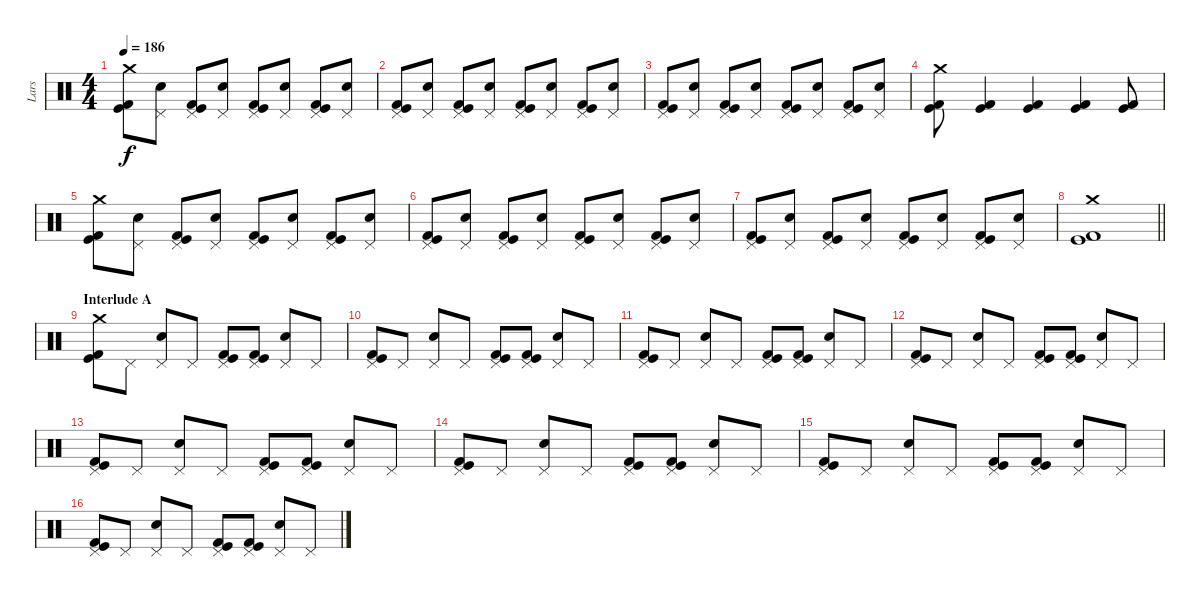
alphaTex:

\track ("Lars" "Lars") {instrument percussion}
\staff {score}
\articulation defaults
\ts (4 4)
\tempo 186
\clef neutral
\ks c
("Crash medium (hit)" "Kick (hit)" "Kick (hit) 2").8{dy f} ("Pedal Hi-Hat (hit)" "Electric Snare (hit)").8 ("Pedal Hi-Hat (hit)" "Kick (hit)" "Kick (hit) 2").8 ("Pedal Hi-Hat (hit)" "Electric Snare (hit)").8 ("Pedal Hi-Hat (hit)" "Kick (hit)" "Kick (hit) 2").8 ("Pedal Hi-Hat (hit)" "Electric Snare (hit)").8 ("Pedal Hi-Hat (hit)" "Kick (hit)" "Kick (hit) 2").8 ("Pedal Hi-Hat (hit)" "Electric Snare (hit)").8 |
("Pedal Hi-Hat (hit)" "Kick (hit)" "Kick (hit) 2").8 ("Pedal Hi-Hat (hit)" "Electric Snare (hit)").8 ("Pedal Hi-Hat (hit)" "Kick (hit)" "Kick (hit) 2").8 ("Pedal Hi-Hat (hit)" "Electric Snare (hit)").8 ("Pedal Hi-Hat (hit)" "Kick (hit)" "Kick (hit) 2").8 ("Pedal Hi-Hat (hit)" "Electric Snare (hit)").8 ("Pedal Hi-Hat (hit)" "Kick (hit)" "Kick (hit) 2").8 ("Pedal Hi-Hat (hit)" "Electric Snare (hit)").8 |
("Pedal Hi-Hat (hit)" "Kick (hit)" "Kick (hit) 2").8 ("Pedal Hi-Hat (hit)" "Electric Snare (hit)").8 ("Pedal Hi-Hat (hit)" "Kick (hit)" "Kick (hit) 2").8 ("Pedal Hi-Hat (hit)" "Electric Snare (hit)").8 ("Pedal Hi-Hat (hit)" "Kick (hit)" "Kick (hit) 2").8 ("Pedal Hi-Hat (hit)" "Electric Snare (hit)").8 ("Pedal Hi-Hat (hit)" "Kick (hit)" "Kick (hit) 2").8 ("Pedal Hi-Hat (hit)" "Electric Snare (hit)").8 |
("Crash medium (hit)" "Kick (hit)" "Kick (hit) 2").8 ("Kick (hit)" "Kick (hit) 2").4 ("Kick (hit)" "Kick (hit) 2").4 ("Kick (hit)" "Kick (hit) 2").4 ("Kick (hit)" "Kick (hit) 2").8 |
("Crash medium (hit)" "Kick (hit)" "Kick (hit) 2").8 ("Pedal Hi-Hat (hit)" "Electric Snare (hit)").8 ("Pedal Hi-Hat (hit)" "Kick (hit)" "Kick (hit) 2").8 ("Pedal Hi-Hat (hit)" "Electric Snare (hit)").8 ("Pedal Hi-Hat (hit)" "Kick (hit)" "Kick (hit) 2").8 ("Pedal Hi-Hat (hit)" "Electric Snare (hit)").8 ("Pedal Hi-Hat (hit)" "Kick (hit)" "Kick (hit) 2").8 ("Pedal Hi-Hat (hit)" "Electric Snare (hit)").8 |
("Pedal Hi-Hat (hit)" "Kick (hit)" "Kick (hit) 2").8 ("Pedal Hi-Hat (hit)" "Electric Snare (hit)").8 ("Pedal Hi-Hat (hit)" "Kick (hit)" "Kick (hit) 2").8 ("Pedal Hi-Hat (hit)" "Electric Snare (hit)").8 ("Pedal Hi-Hat (hit)" "Kick (hit)" "Kick (hit) 2").8 ("Pedal Hi-Hat (hit)" "Electric Snare (hit)").8 ("Pedal Hi-Hat (hit)" "Kick (hit)" "Kick (hit) 2").8 ("Pedal Hi-Hat (hit)" "Electric Snare (hit)").8 |
("Pedal Hi-Hat (hit)" "Kick (hit)" "Kick (hit) 2").8 ("Pedal Hi-Hat (hit)" "Electric Snare (hit)").8 ("Pedal Hi-Hat (hit)" "Kick (hit)" "Kick (hit) 2").8 ("Pedal Hi-Hat (hit)" "Electric Snare (hit)").8 ("Pedal Hi-Hat (hit)" "Kick (hit)" "Kick (hit) 2").8 ("Pedal Hi-Hat (hit)" "Electric Snare (hit)").8 ("Pedal Hi-Hat (hit)" "Kick (hit)" "Kick (hit) 2").8 ("Pedal Hi-Hat (hit)" "Electric Snare (hit)").8 |
\barLineRight lightlight
("Crash medium (hit)" "Kick (hit)" "Kick (hit) 2").1 |
\section ("" "Interlude A")
("Crash medium (hit)" "Kick (hit)" "Kick (hit) 2").8 "Pedal Hi-Hat (hit)".8 ("Pedal Hi-Hat (hit)" "Electric Snare (hit)").8 "Pedal Hi-Hat (hit)".8 ("Pedal Hi-Hat (hit)" "Kick (hit)" "Kick (hit) 2").8 ("Pedal Hi-Hat (hit)" "Kick (hit)" "Kick (hit) 2").8 ("Pedal Hi-Hat (hit)" "Electric Snare (hit)").8 "Pedal Hi-Hat (hit)".8 |
("Pedal Hi-Hat (hit)" "Kick (hit)" "Kick (hit) 2").8 "Pedal Hi-Hat (hit)".8 ("Pedal Hi-Hat (hit)" "Electric Snare (hit)").8 "Pedal Hi-Hat (hit)".8 ("Pedal Hi-Hat (hit)" "Kick (hit)" "Kick (hit) 2").8 ("Pedal Hi-Hat (hit)" "Kick (hit)" "Kick (hit) 2").8 ("Pedal Hi-Hat (hit)" "Electric Snare (hit)").8 "Pedal Hi-Hat (hit)".8 |
("Pedal Hi-Hat (hit)" "Kick (hit)" "Kick (hit) 2").8 "Pedal Hi-Hat (hit)".8 ("Pedal Hi-Hat (hit)" "Electric Snare (hit)").8 "Pedal Hi-Hat (hit)".8 ("Pedal Hi-Hat (hit)" "Kick (hit)" "Kick (hit) 2").8 ("Pedal Hi-Hat (hit)" "Kick (hit)" "Kick (hit) 2").8 ("Pedal Hi-Hat (hit)" "Electric Snare (hit)").8 "Pedal Hi-Hat (hit)".8 |
("Pedal Hi-Hat (hit)" "Kick (hit)" "Kick (hit) 2").8 "Pedal Hi-Hat (hit)".8 ("Pedal Hi-Hat (hit)" "Electric Snare (hit)").8 "Pedal Hi-Hat (hit)".8 ("Pedal Hi-Hat (hit)" "Kick (hit)" "Kick (hit) 2").8 ("Pedal Hi-Hat (hit)" "Kick (hit)" "Kick (hit) 2").8 ("Pedal Hi-Hat (hit)" "Electric Snare (hit)").8 "Pedal Hi-Hat (hit)".8 |
("Pedal Hi-Hat (hit)" "Kick (hit)" "Kick (hit) 2").8 "Pedal Hi-Hat (hit)".8 ("Pedal Hi-Hat (hit)" "Electric Snare (hit)").8 "Pedal Hi-Hat (hit)".8 ("Pedal Hi-Hat (hit)" "Kick (hit)" "Kick (hit) 2").8 ("Pedal Hi-Hat (hit)" "Kick (hit)" "Kick (hit) 2").8 ("Pedal Hi-Hat (hit)" "Electric Snare (hit)").8 "Pedal Hi-Hat (hit)".8 |
("Pedal Hi-Hat (hit)" "Kick (hit)" "Kick (hit) 2").8 "Pedal Hi-Hat (hit)".8 ("Pedal Hi-Hat (hit)" "Electric Snare (hit)").8 "Pedal Hi-Hat (hit)".8 ("Pedal Hi-Hat (hit)" "Kick (hit)" "Kick (hit) 2").8 ("Pedal Hi-Hat (hit)" "Kick (hit)" "Kick (hit) 2").8 ("Pedal Hi-Hat (hit)" "Electric Snare (hit)").8 "Pedal Hi-Hat (hit)".8 |
("Pedal Hi-Hat (hit)" "Kick (hit)" "Kick (hit) 2").8 "Pedal Hi-Hat (hit)".8 ("Pedal Hi-Hat (hit)" "Electric Snare (hit)").8 "Pedal Hi-Hat (hit)".8 ("Pedal Hi-Hat (hit)" "Kick (hit)" "Kick (hit) 2").8 ("Pedal Hi-Hat (hit)" "Kick (hit)" "Kick (hit) 2").8 ("Pedal Hi-Hat (hit)" "Electric Snare (hit)").8 "Pedal Hi-Hat (hit)".8 |
("Pedal Hi-Hat (hit)" "Kick (hit)" "Kick (hit) 2").8 "Pedal Hi-Hat (hit)".8 ("Pedal Hi-Hat (hit)" "Electric Snare (hit)").8 "Pedal Hi-Hat (hit)".8 ("Pedal Hi-Hat (hit)" "Kick (hit)" "Kick (hit) 2").8 ("Pedal Hi-Hat (hit)" "Kick (hit)" "Kick (hit) 2").8 ("Pedal Hi-Hat (hit)" "Electric Snare (hit)").8 "Pedal Hi-Hat (hit)".8
